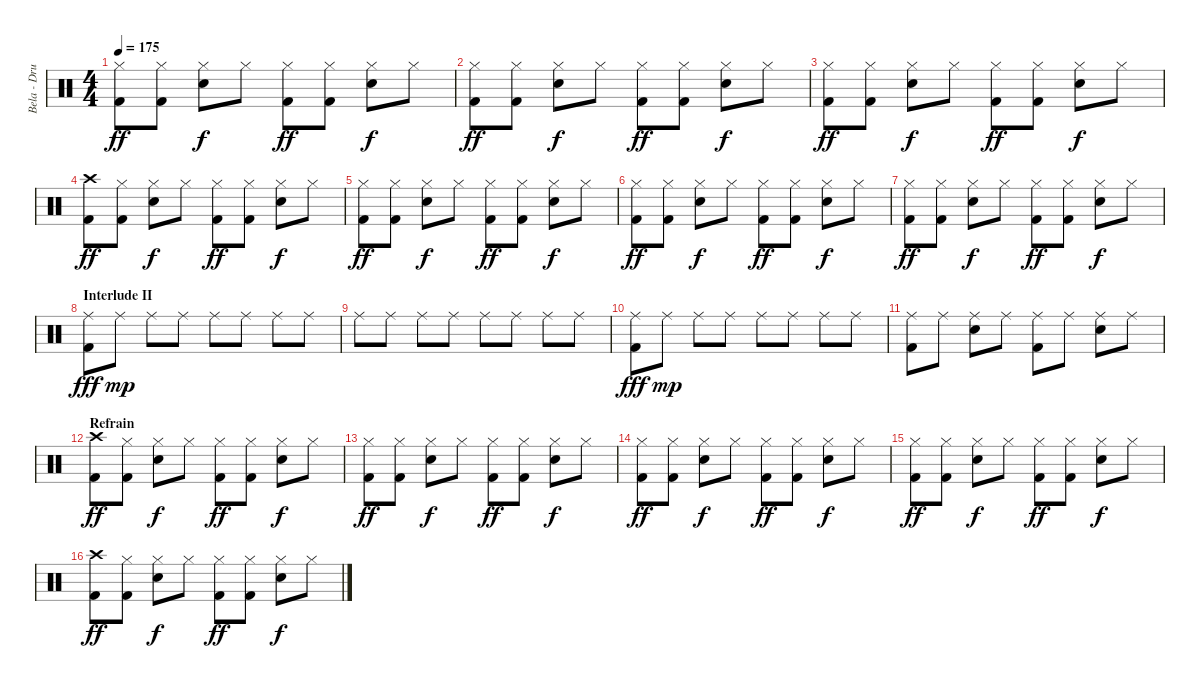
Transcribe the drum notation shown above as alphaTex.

\track ("Bela - Drums" "Bela - Dru") {instrument percussion}
\staff {score}
\articulation defaults
\ts (4 4)
\tempo 175
\clef neutral
\ks c
("Hi-Hat (closed)" "Kick (hit) 2").8{dy ff} ("Hi-Hat (closed)" "Kick (hit) 2").8 ("Hi-Hat (closed)" "Electric Snare (hit)").8{dy f} "Hi-Hat (closed)".8 ("Hi-Hat (closed)" "Kick (hit) 2").8{dy ff} ("Hi-Hat (closed)" "Kick (hit) 2").8 ("Hi-Hat (closed)" "Electric Snare (hit)").8{dy f} "Hi-Hat (closed)".8 |
("Hi-Hat (closed)" "Kick (hit) 2").8{dy ff} ("Hi-Hat (closed)" "Kick (hit) 2").8 ("Hi-Hat (closed)" "Electric Snare (hit)").8{dy f} "Hi-Hat (closed)".8 ("Hi-Hat (closed)" "Kick (hit) 2").8{dy ff} ("Hi-Hat (closed)" "Kick (hit) 2").8 ("Hi-Hat (closed)" "Electric Snare (hit)").8{dy f} "Hi-Hat (closed)".8 |
("Hi-Hat (closed)" "Kick (hit) 2").8{dy ff} ("Hi-Hat (closed)" "Kick (hit) 2").8 ("Hi-Hat (closed)" "Electric Snare (hit)").8{dy f} "Hi-Hat (closed)".8 ("Hi-Hat (closed)" "Kick (hit) 2").8{dy ff} ("Hi-Hat (closed)" "Kick (hit) 2").8 ("Hi-Hat (closed)" "Electric Snare (hit)").8{dy f} "Hi-Hat (closed)".8 |
("Crash high (hit)" "Kick (hit) 2").8{dy ff} ("Hi-Hat (closed)" "Kick (hit) 2").8 ("Hi-Hat (closed)" "Electric Snare (hit)").8{dy f} "Hi-Hat (closed)".8 ("Hi-Hat (closed)" "Kick (hit) 2").8{dy ff} ("Hi-Hat (closed)" "Kick (hit) 2").8 ("Hi-Hat (closed)" "Electric Snare (hit)").8{dy f} "Hi-Hat (closed)".8 |
("Hi-Hat (closed)" "Kick (hit) 2").8{dy ff} ("Hi-Hat (closed)" "Kick (hit) 2").8 ("Hi-Hat (closed)" "Electric Snare (hit)").8{dy f} "Hi-Hat (closed)".8 ("Hi-Hat (closed)" "Kick (hit) 2").8{dy ff} ("Hi-Hat (closed)" "Kick (hit) 2").8 ("Hi-Hat (closed)" "Electric Snare (hit)").8{dy f} "Hi-Hat (closed)".8 |
("Hi-Hat (closed)" "Kick (hit) 2").8{dy ff} ("Hi-Hat (closed)" "Kick (hit) 2").8 ("Hi-Hat (closed)" "Electric Snare (hit)").8{dy f} "Hi-Hat (closed)".8 ("Hi-Hat (closed)" "Kick (hit) 2").8{dy ff} ("Hi-Hat (closed)" "Kick (hit) 2").8 ("Hi-Hat (closed)" "Electric Snare (hit)").8{dy f} "Hi-Hat (closed)".8 |
("Hi-Hat (closed)" "Kick (hit) 2").8{dy ff} ("Hi-Hat (closed)" "Kick (hit) 2").8 ("Hi-Hat (closed)" "Electric Snare (hit)").8{dy f} "Hi-Hat (closed)".8 ("Hi-Hat (closed)" "Kick (hit) 2").8{dy ff} ("Hi-Hat (closed)" "Kick (hit) 2").8 ("Hi-Hat (closed)" "Electric Snare (hit)").8{dy f} "Hi-Hat (closed)".8 |
\section ("" "Interlude II")
("Ride (middle)" "Kick (hit) 2").8{dy fff} "Ride (middle)".8{dy mp} "Ride (middle)".8 "Ride (middle)".8 "Ride (middle)".8 "Ride (middle)".8 "Ride (middle)".8 "Ride (middle)".8 |
"Ride (middle)".8 "Ride (middle)".8 "Ride (middle)".8 "Ride (middle)".8 "Ride (middle)".8 "Ride (middle)".8 "Ride (middle)".8 "Ride (middle)".8 |
("Ride (middle)" "Kick (hit) 2").8{dy fff} "Ride (middle)".8{dy mp} "Ride (middle)".8 "Ride (middle)".8 "Ride (middle)".8 "Ride (middle)".8 "Ride (middle)".8 "Ride (middle)".8 |
("Ride (middle)" "Kick (hit) 2").8 "Ride (middle)".8 ("Ride (middle)" "Electric Snare (hit)").8 "Ride (middle)".8 ("Ride (middle)" "Kick (hit) 2").8 "Ride (middle)".8 ("Ride (middle)" "Electric Snare (hit)").8 "Ride (middle)".8 |
\section ("" "Refrain")
("Crash high (hit)" "Kick (hit) 2").8{dy ff} ("Hi-Hat (closed)" "Kick (hit) 2").8 ("Hi-Hat (closed)" "Electric Snare (hit)").8{dy f} "Hi-Hat (closed)".8 ("Hi-Hat (closed)" "Kick (hit) 2").8{dy ff} ("Hi-Hat (closed)" "Kick (hit) 2").8 ("Hi-Hat (closed)" "Electric Snare (hit)").8{dy f} "Hi-Hat (closed)".8 |
("Hi-Hat (closed)" "Kick (hit) 2").8{dy ff} ("Hi-Hat (closed)" "Kick (hit) 2").8 ("Hi-Hat (closed)" "Electric Snare (hit)").8{dy f} "Hi-Hat (closed)".8 ("Hi-Hat (closed)" "Kick (hit) 2").8{dy ff} ("Hi-Hat (closed)" "Kick (hit) 2").8 ("Hi-Hat (closed)" "Electric Snare (hit)").8{dy f} "Hi-Hat (closed)".8 |
("Hi-Hat (closed)" "Kick (hit) 2").8{dy ff} ("Hi-Hat (closed)" "Kick (hit) 2").8 ("Hi-Hat (closed)" "Electric Snare (hit)").8{dy f} "Hi-Hat (closed)".8 ("Hi-Hat (closed)" "Kick (hit) 2").8{dy ff} ("Hi-Hat (closed)" "Kick (hit) 2").8 ("Hi-Hat (closed)" "Electric Snare (hit)").8{dy f} "Hi-Hat (closed)".8 |
("Hi-Hat (closed)" "Kick (hit) 2").8{dy ff} ("Hi-Hat (closed)" "Kick (hit) 2").8 ("Hi-Hat (closed)" "Electric Snare (hit)").8{dy f} "Hi-Hat (closed)".8 ("Hi-Hat (closed)" "Kick (hit) 2").8{dy ff} ("Hi-Hat (closed)" "Kick (hit) 2").8 ("Hi-Hat (closed)" "Electric Snare (hit)").8{dy f} "Hi-Hat (closed)".8 |
("Crash high (hit)" "Kick (hit) 2").8{dy ff} ("Hi-Hat (closed)" "Kick (hit) 2").8 ("Hi-Hat (closed)" "Electric Snare (hit)").8{dy f} "Hi-Hat (closed)".8 ("Hi-Hat (closed)" "Kick (hit) 2").8{dy ff} ("Hi-Hat (closed)" "Kick (hit) 2").8 ("Hi-Hat (closed)" "Electric Snare (hit)").8{dy f} "Hi-Hat (closed)".8
